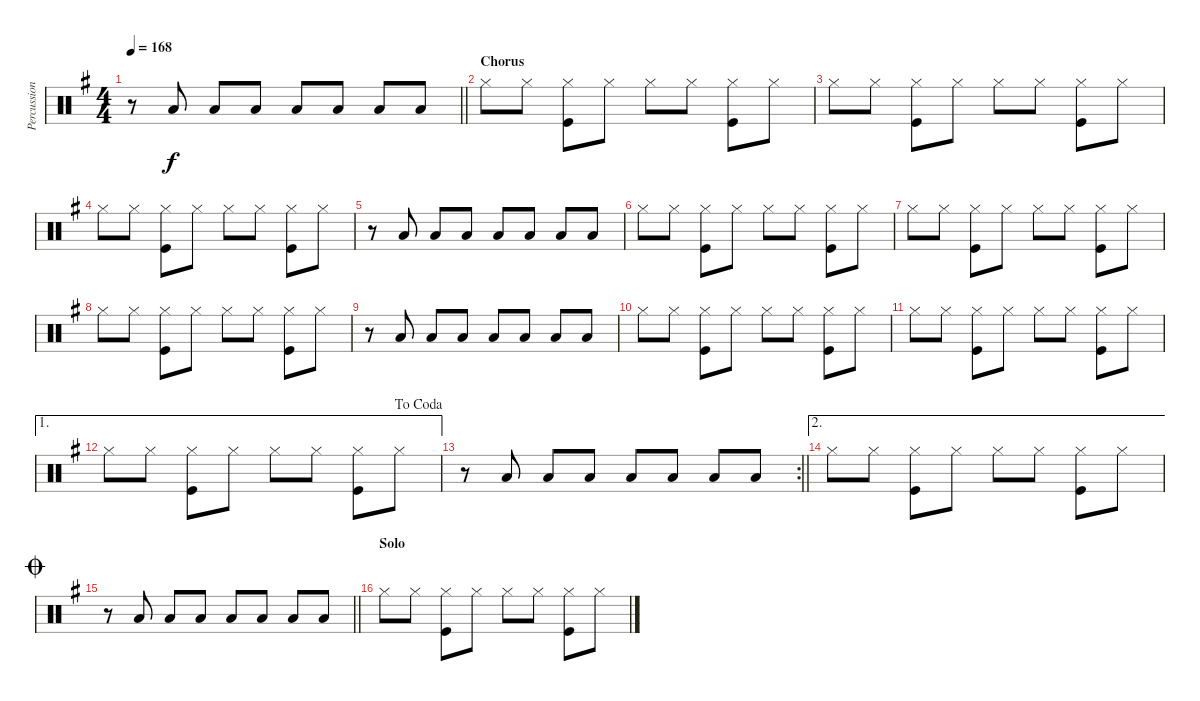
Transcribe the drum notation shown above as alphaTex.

\track ("Percussion" "Percussion") {instrument percussion}
\staff {score}
\articulation defaults
\ts (4 4)
\tempo 168
\clef neutral
\barLineRight lightlight
\ks g
r.8{dy f} "Low Tom (hit)".8 "Low Tom (hit)".8 "Low Tom (hit)".8 "Low Tom (hit)".8 "Low Tom (hit)".8 "Low Tom (hit)".8 "Low Tom (hit)".8 |
\section ("" "Chorus")
"Hi-Hat (closed)".8 "Hi-Hat (closed)".8 ("Hi-Hat (closed)" "Kick (hit)").8 "Hi-Hat (closed)".8 "Hi-Hat (closed)".8 "Hi-Hat (closed)".8 ("Hi-Hat (closed)" "Kick (hit)").8 "Hi-Hat (closed)".8 |
"Hi-Hat (closed)".8 "Hi-Hat (closed)".8 ("Hi-Hat (closed)" "Kick (hit)").8 "Hi-Hat (closed)".8 "Hi-Hat (closed)".8 "Hi-Hat (closed)".8 ("Hi-Hat (closed)" "Kick (hit)").8 "Hi-Hat (closed)".8 |
"Hi-Hat (closed)".8 "Hi-Hat (closed)".8 ("Hi-Hat (closed)" "Kick (hit)").8 "Hi-Hat (closed)".8 "Hi-Hat (closed)".8 "Hi-Hat (closed)".8 ("Hi-Hat (closed)" "Kick (hit)").8 "Hi-Hat (closed)".8 |
r.8 "Low Tom (hit)".8 "Low Tom (hit)".8 "Low Tom (hit)".8 "Low Tom (hit)".8 "Low Tom (hit)".8 "Low Tom (hit)".8 "Low Tom (hit)".8 |
"Hi-Hat (closed)".8 "Hi-Hat (closed)".8 ("Hi-Hat (closed)" "Kick (hit)").8 "Hi-Hat (closed)".8 "Hi-Hat (closed)".8 "Hi-Hat (closed)".8 ("Hi-Hat (closed)" "Kick (hit)").8 "Hi-Hat (closed)".8 |
"Hi-Hat (closed)".8 "Hi-Hat (closed)".8 ("Hi-Hat (closed)" "Kick (hit)").8 "Hi-Hat (closed)".8 "Hi-Hat (closed)".8 "Hi-Hat (closed)".8 ("Hi-Hat (closed)" "Kick (hit)").8 "Hi-Hat (closed)".8 |
"Hi-Hat (closed)".8 "Hi-Hat (closed)".8 ("Hi-Hat (closed)" "Kick (hit)").8 "Hi-Hat (closed)".8 "Hi-Hat (closed)".8 "Hi-Hat (closed)".8 ("Hi-Hat (closed)" "Kick (hit)").8 "Hi-Hat (closed)".8 |
r.8 "Low Tom (hit)".8 "Low Tom (hit)".8 "Low Tom (hit)".8 "Low Tom (hit)".8 "Low Tom (hit)".8 "Low Tom (hit)".8 "Low Tom (hit)".8 |
"Hi-Hat (closed)".8 "Hi-Hat (closed)".8 ("Hi-Hat (closed)" "Kick (hit)").8 "Hi-Hat (closed)".8 "Hi-Hat (closed)".8 "Hi-Hat (closed)".8 ("Hi-Hat (closed)" "Kick (hit)").8 "Hi-Hat (closed)".8 |
"Hi-Hat (closed)".8 "Hi-Hat (closed)".8 ("Hi-Hat (closed)" "Kick (hit)").8 "Hi-Hat (closed)".8 "Hi-Hat (closed)".8 "Hi-Hat (closed)".8 ("Hi-Hat (closed)" "Kick (hit)").8 "Hi-Hat (closed)".8 |
\ae 1
\jump dacoda "Hi-Hat (closed)".8 "Hi-Hat (closed)".8
("Hi-Hat (closed)" "Kick (hit)").8 "Hi-Hat (closed)".8 "Hi-Hat (closed)".8 "Hi-Hat (closed)".8 ("Hi-Hat (closed)" "Kick (hit)").8 "Hi-Hat (closed)".8 |
\rc 2
\barLineRight lightlight
r.8 "Low Tom (hit)".8 "Low Tom (hit)".8 "Low Tom (hit)".8 "Low Tom (hit)".8 "Low Tom (hit)".8 "Low Tom (hit)".8 "Low Tom (hit)".8 |
\ae 2 "Hi-Hat (closed)".8 "Hi-Hat (closed)".8
("Hi-Hat (closed)" "Kick (hit)").8 "Hi-Hat (closed)".8 "Hi-Hat (closed)".8 "Hi-Hat (closed)".8 ("Hi-Hat (closed)" "Kick (hit)").8 "Hi-Hat (closed)".8 |
\jump coda
\barLineRight lightlight
r.8 "Low Tom (hit)".8 "Low Tom (hit)".8 "Low Tom (hit)".8 "Low Tom (hit)".8 "Low Tom (hit)".8 "Low Tom (hit)".8 "Low Tom (hit)".8 |
\section ("" "Solo")
"Hi-Hat (closed)".8 "Hi-Hat (closed)".8 ("Hi-Hat (closed)" "Kick (hit)").8 "Hi-Hat (closed)".8 "Hi-Hat (closed)".8 "Hi-Hat (closed)".8 ("Hi-Hat (closed)" "Kick (hit)").8 "Hi-Hat (closed)".8
